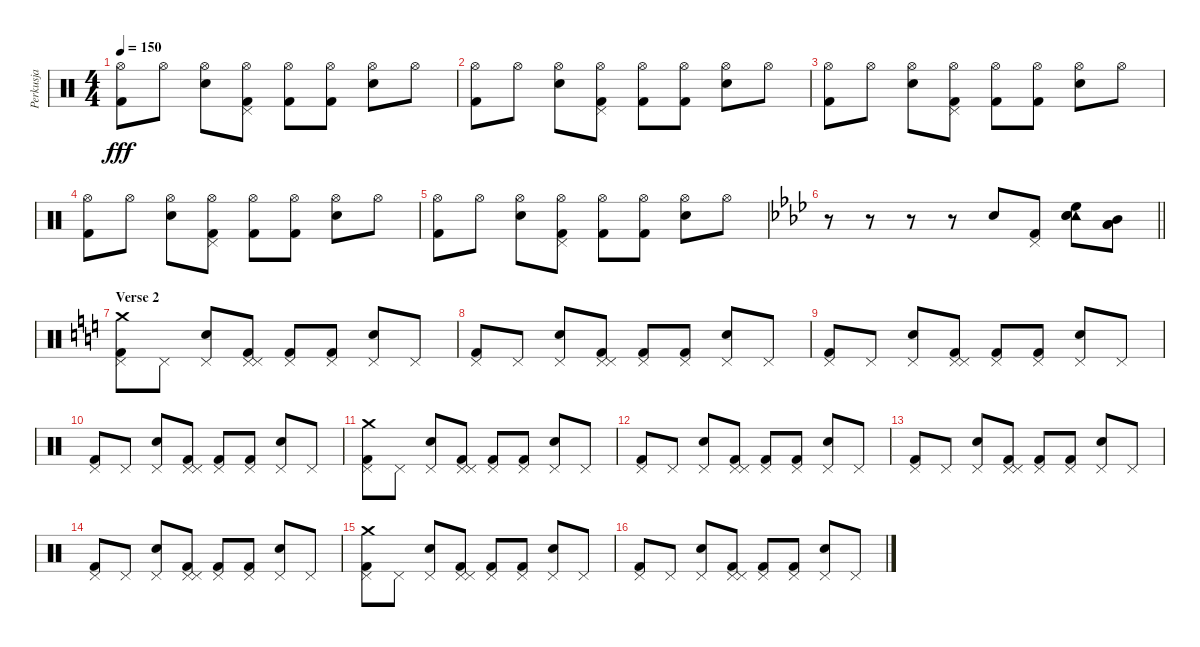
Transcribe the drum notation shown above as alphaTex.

\track ("Perkusja" "Perkusja") {instrument percussion}
\staff {score}
\articulation defaults
\ts (4 4)
\tempo 150
\clef neutral
\ks c
("Hi-Hat (open)" "Kick (hit) 2").8{dy fff} "Hi-Hat (open)".8 ("Hi-Hat (open)" "Electric Snare (hit)").8 ("Hi-Hat (open)" "Kick (hit) 2" "Pedal Hi-Hat (hit)").8 ("Hi-Hat (open)" "Kick (hit) 2").8 ("Hi-Hat (open)" "Kick (hit) 2").8 ("Hi-Hat (open)" "Electric Snare (hit)").8 "Hi-Hat (open)".8 |
("Hi-Hat (open)" "Kick (hit) 2").8 "Hi-Hat (open)".8 ("Hi-Hat (open)" "Electric Snare (hit)").8 ("Hi-Hat (open)" "Kick (hit) 2" "Pedal Hi-Hat (hit)").8 ("Hi-Hat (open)" "Kick (hit) 2").8 ("Hi-Hat (open)" "Kick (hit) 2").8 ("Hi-Hat (open)" "Electric Snare (hit)").8 "Hi-Hat (open)".8 |
("Hi-Hat (open)" "Kick (hit) 2").8 "Hi-Hat (open)".8 ("Hi-Hat (open)" "Electric Snare (hit)").8 ("Hi-Hat (open)" "Kick (hit) 2" "Pedal Hi-Hat (hit)").8 ("Hi-Hat (open)" "Kick (hit) 2").8 ("Hi-Hat (open)" "Kick (hit) 2").8 ("Hi-Hat (open)" "Electric Snare (hit)").8 "Hi-Hat (open)".8 |
("Hi-Hat (open)" "Kick (hit) 2").8 "Hi-Hat (open)".8 ("Hi-Hat (open)" "Electric Snare (hit)").8 ("Hi-Hat (open)" "Kick (hit) 2" "Pedal Hi-Hat (hit)").8 ("Hi-Hat (open)" "Kick (hit) 2").8 ("Hi-Hat (open)" "Kick (hit) 2").8 ("Hi-Hat (open)" "Electric Snare (hit)").8 "Hi-Hat (open)".8 |
("Hi-Hat (open)" "Kick (hit) 2").8 "Hi-Hat (open)".8 ("Hi-Hat (open)" "Electric Snare (hit)").8 ("Hi-Hat (open)" "Kick (hit) 2" "Pedal Hi-Hat (hit)").8 ("Hi-Hat (open)" "Kick (hit) 2").8 ("Hi-Hat (open)" "Kick (hit) 2").8 ("Hi-Hat (open)" "Electric Snare (hit)").8 "Hi-Hat (open)".8 |
\barLineRight lightlight
\ks ab
r.8 r.8 r.8 r.8 "Electric Snare (hit)".8 ("Pedal Hi-Hat (hit)" "Kick (hit) 2").8 ("Tambourine (hit)" "Electric Snare (hit)" "High Floor Tom (hit)" "Electric Snare (hit)").8 ("Mid Tom (hit)" "Low Floor Tom (hit)" "Low Floor Tom (hit)").8 |
\section ("" "Verse 2")
\ks c
("Pedal Hi-Hat (hit)" "Kick (hit) 2" "Crash medium (hit)").8 "Pedal Hi-Hat (hit)".8 ("Pedal Hi-Hat (hit)" "Electric Snare (hit)").8 ("Pedal Hi-Hat (hit)" "Kick (hit) 2" "Pedal Hi-Hat (hit)").8 ("Pedal Hi-Hat (hit)" "Kick (hit) 2").8 ("Pedal Hi-Hat (hit)" "Kick (hit) 2").8 ("Pedal Hi-Hat (hit)" "Electric Snare (hit)").8 "Pedal Hi-Hat (hit)".8 |
("Pedal Hi-Hat (hit)" "Kick (hit) 2").8 "Pedal Hi-Hat (hit)".8 ("Pedal Hi-Hat (hit)" "Electric Snare (hit)").8 ("Pedal Hi-Hat (hit)" "Kick (hit) 2" "Pedal Hi-Hat (hit)").8 ("Pedal Hi-Hat (hit)" "Kick (hit) 2").8 ("Pedal Hi-Hat (hit)" "Kick (hit) 2").8 ("Pedal Hi-Hat (hit)" "Electric Snare (hit)").8 "Pedal Hi-Hat (hit)".8 |
("Pedal Hi-Hat (hit)" "Kick (hit) 2").8 "Pedal Hi-Hat (hit)".8 ("Pedal Hi-Hat (hit)" "Electric Snare (hit)").8 ("Pedal Hi-Hat (hit)" "Kick (hit) 2" "Pedal Hi-Hat (hit)").8 ("Pedal Hi-Hat (hit)" "Kick (hit) 2").8 ("Pedal Hi-Hat (hit)" "Kick (hit) 2").8 ("Pedal Hi-Hat (hit)" "Electric Snare (hit)").8 "Pedal Hi-Hat (hit)".8 |
("Pedal Hi-Hat (hit)" "Kick (hit) 2").8 "Pedal Hi-Hat (hit)".8 ("Pedal Hi-Hat (hit)" "Electric Snare (hit)").8 ("Pedal Hi-Hat (hit)" "Kick (hit) 2" "Pedal Hi-Hat (hit)").8 ("Pedal Hi-Hat (hit)" "Kick (hit) 2").8 ("Pedal Hi-Hat (hit)" "Kick (hit) 2").8 ("Pedal Hi-Hat (hit)" "Electric Snare (hit)").8 "Pedal Hi-Hat (hit)".8 |
("Pedal Hi-Hat (hit)" "Kick (hit) 2" "Crash medium (hit)").8 "Pedal Hi-Hat (hit)".8 ("Pedal Hi-Hat (hit)" "Electric Snare (hit)").8 ("Pedal Hi-Hat (hit)" "Kick (hit) 2" "Pedal Hi-Hat (hit)").8 ("Pedal Hi-Hat (hit)" "Kick (hit) 2").8 ("Pedal Hi-Hat (hit)" "Kick (hit) 2").8 ("Pedal Hi-Hat (hit)" "Electric Snare (hit)").8 "Pedal Hi-Hat (hit)".8 |
("Pedal Hi-Hat (hit)" "Kick (hit) 2").8 "Pedal Hi-Hat (hit)".8 ("Pedal Hi-Hat (hit)" "Electric Snare (hit)").8 ("Pedal Hi-Hat (hit)" "Kick (hit) 2" "Pedal Hi-Hat (hit)").8 ("Pedal Hi-Hat (hit)" "Kick (hit) 2").8 ("Pedal Hi-Hat (hit)" "Kick (hit) 2").8 ("Pedal Hi-Hat (hit)" "Electric Snare (hit)").8 "Pedal Hi-Hat (hit)".8 |
("Pedal Hi-Hat (hit)" "Kick (hit) 2").8 "Pedal Hi-Hat (hit)".8 ("Pedal Hi-Hat (hit)" "Electric Snare (hit)").8 ("Pedal Hi-Hat (hit)" "Kick (hit) 2" "Pedal Hi-Hat (hit)").8 ("Pedal Hi-Hat (hit)" "Kick (hit) 2").8 ("Pedal Hi-Hat (hit)" "Kick (hit) 2").8 ("Pedal Hi-Hat (hit)" "Electric Snare (hit)").8 "Pedal Hi-Hat (hit)".8 |
("Pedal Hi-Hat (hit)" "Kick (hit) 2").8 "Pedal Hi-Hat (hit)".8 ("Pedal Hi-Hat (hit)" "Electric Snare (hit)").8 ("Pedal Hi-Hat (hit)" "Kick (hit) 2" "Pedal Hi-Hat (hit)").8 ("Pedal Hi-Hat (hit)" "Kick (hit) 2").8 ("Pedal Hi-Hat (hit)" "Kick (hit) 2").8 ("Pedal Hi-Hat (hit)" "Electric Snare (hit)").8 "Pedal Hi-Hat (hit)".8 |
("Pedal Hi-Hat (hit)" "Kick (hit) 2" "Crash medium (hit)").8 "Pedal Hi-Hat (hit)".8 ("Pedal Hi-Hat (hit)" "Electric Snare (hit)").8 ("Pedal Hi-Hat (hit)" "Kick (hit) 2" "Pedal Hi-Hat (hit)").8 ("Pedal Hi-Hat (hit)" "Kick (hit) 2").8 ("Pedal Hi-Hat (hit)" "Kick (hit) 2").8 ("Pedal Hi-Hat (hit)" "Electric Snare (hit)").8 "Pedal Hi-Hat (hit)".8 |
("Pedal Hi-Hat (hit)" "Kick (hit) 2").8 "Pedal Hi-Hat (hit)".8 ("Pedal Hi-Hat (hit)" "Electric Snare (hit)").8 ("Pedal Hi-Hat (hit)" "Kick (hit) 2" "Pedal Hi-Hat (hit)").8 ("Pedal Hi-Hat (hit)" "Kick (hit) 2").8 ("Pedal Hi-Hat (hit)" "Kick (hit) 2").8 ("Pedal Hi-Hat (hit)" "Electric Snare (hit)").8 "Pedal Hi-Hat (hit)".8
